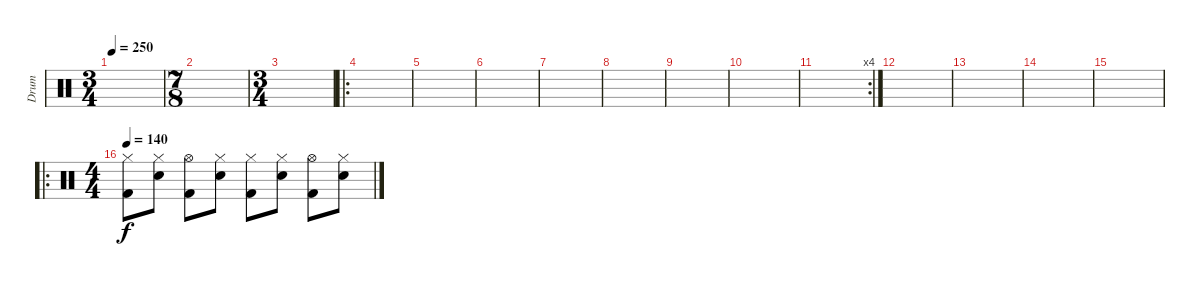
\track ("Drum" "Drum") {instrument percussion}
\staff {score}
\articulation defaults
\ts (3 4)
\tempo 250
\clef neutral
\ks c
|
\ts (7 8)
|
\ts (3 4)
|
\ro
|
|
|
|
|
|
|
\rc 4
|
|
|
|
|
\ro
\ts (4 4)
\tempo 140
("Hi-Hat (closed)" "Kick (hit) 2").8 ("Hi-Hat (closed)" "Snare (hit) 2").8 ("Hi-Hat (open)" "Kick (hit) 2").8 ("Hi-Hat (closed)" "Snare (hit) 2").8 ("Hi-Hat (closed)" "Kick (hit) 2").8 ("Hi-Hat (closed)" "Snare (hit) 2").8 ("Hi-Hat (open)" "Kick (hit) 2").8 ("Hi-Hat (closed)" "Snare (hit) 2").8
